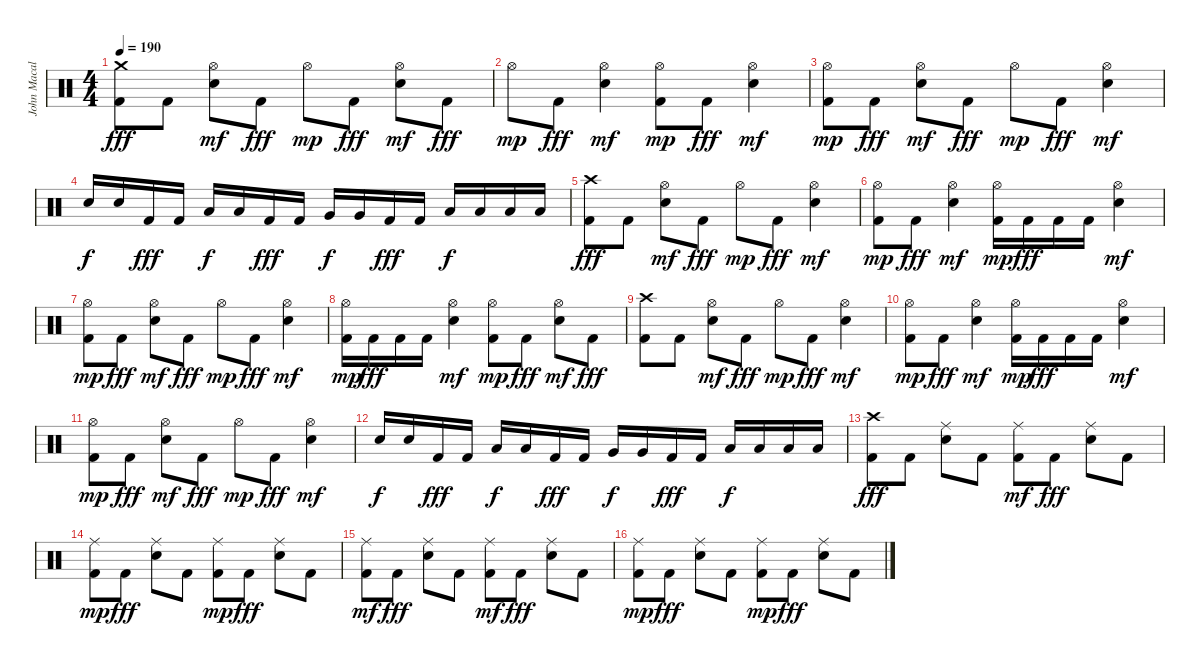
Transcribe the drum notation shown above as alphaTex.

\track ("John Macaluso drums" "John Macal") {instrument percussion}
\staff {score}
\articulation defaults
\ts (4 4)
\tempo 190
\clef neutral
\ks c
("Kick (hit) 2" "Crash medium (hit)").8{dy fff} "Kick (hit) 2".8 ("Snare (hit) 2" "Hi-Hat (open)").8{dy mf} "Kick (hit) 2".8{dy fff} "Hi-Hat (open)".8{dy mp} "Kick (hit) 2".8{dy fff} ("Snare (hit) 2" "Hi-Hat (open)").8{dy mf} "Kick (hit) 2".8{dy fff} |
"Hi-Hat (open)".8{dy mp} "Kick (hit) 2".8{dy fff} ("Snare (hit) 2" "Hi-Hat (open)").4{dy mf} ("Kick (hit) 2" "Hi-Hat (open)").8{dy mp} "Kick (hit) 2".8{dy fff} ("Snare (hit) 2" "Hi-Hat (open)").4{dy mf} |
("Kick (hit) 2" "Hi-Hat (open)").8{dy mp} "Kick (hit) 2".8{dy fff} ("Snare (hit) 2" "Hi-Hat (open)").8{dy mf} "Kick (hit) 2".8{dy fff} "Hi-Hat (open)".8{dy mp} "Kick (hit) 2".8{dy fff} ("Snare (hit) 2" "Hi-Hat (open)").4{dy mf} |
"Electric Snare (hit)".16{dy f} "Electric Snare (hit)".16 "Kick (hit) 2".16{dy fff} "Kick (hit) 2".16 "Low Tom (hit)".16{dy f} "Low Tom (hit)".16 "Kick (hit) 2".16{dy fff} "Kick (hit) 2".16 "Very Low Tom (hit)".16{dy f} "Very Low Tom (hit)".16 "Kick (hit) 2".16{dy fff} "Kick (hit) 2".16 "Low Floor Tom (hit)".16{dy f} "Low Floor Tom (hit)".16 "Low Floor Tom (hit)".16 "Low Floor Tom (hit)".16 |
("Kick (hit) 2" "Crash high (hit)").8{dy fff} "Kick (hit) 2".8 ("Snare (hit) 2" "Hi-Hat (open)").8{dy mf} "Kick (hit) 2".8{dy fff} "Hi-Hat (open)".8{dy mp} "Kick (hit) 2".8{dy fff} ("Snare (hit) 2" "Hi-Hat (open)").4{dy mf} |
("Kick (hit) 2" "Hi-Hat (open)").8{dy mp} "Kick (hit) 2".8{dy fff} ("Snare (hit) 2" "Hi-Hat (open)").4{dy mf} ("Kick (hit) 2" "Hi-Hat (open)").16{dy mp} "Kick (hit) 2".16{dy fff} "Kick (hit) 2".16 "Kick (hit) 2".16 ("Snare (hit) 2" "Hi-Hat (open)").4{dy mf} |
("Kick (hit) 2" "Hi-Hat (open)").8{dy mp} "Kick (hit) 2".8{dy fff} ("Snare (hit) 2" "Hi-Hat (open)").8{dy mf} "Kick (hit) 2".8{dy fff} "Hi-Hat (open)".8{dy mp} "Kick (hit) 2".8{dy fff} ("Snare (hit) 2" "Hi-Hat (open)").4{dy mf} |
("Kick (hit) 2" "Hi-Hat (open)").16{dy mp} "Kick (hit) 2".16{dy fff} "Kick (hit) 2".16 "Kick (hit) 2".16 ("Snare (hit) 2" "Hi-Hat (open)").4{dy mf} ("Kick (hit) 2" "Hi-Hat (open)").8{dy mp} "Kick (hit) 2".8{dy fff} ("Snare (hit) 2" "Hi-Hat (open)").8{dy mf} "Kick (hit) 2".8{dy fff} |
("Kick (hit) 2" "Crash high (hit)").8 "Kick (hit) 2".8 ("Snare (hit) 2" "Hi-Hat (open)").8{dy mf} "Kick (hit) 2".8{dy fff} "Hi-Hat (open)".8{dy mp} "Kick (hit) 2".8{dy fff} ("Snare (hit) 2" "Hi-Hat (open)").4{dy mf} |
("Kick (hit) 2" "Hi-Hat (open)").8{dy mp} "Kick (hit) 2".8{dy fff} ("Snare (hit) 2" "Hi-Hat (open)").4{dy mf} ("Kick (hit) 2" "Hi-Hat (open)").16{dy mp} "Kick (hit) 2".16{dy fff} "Kick (hit) 2".16 "Kick (hit) 2".16 ("Snare (hit) 2" "Hi-Hat (open)").4{dy mf} |
("Kick (hit) 2" "Hi-Hat (open)").8{dy mp} "Kick (hit) 2".8{dy fff} ("Snare (hit) 2" "Hi-Hat (open)").8{dy mf} "Kick (hit) 2".8{dy fff} "Hi-Hat (open)".8{dy mp} "Kick (hit) 2".8{dy fff} ("Snare (hit) 2" "Hi-Hat (open)").4{dy mf} |
"Electric Snare (hit)".16{dy f} "Electric Snare (hit)".16 "Kick (hit) 2".16{dy fff} "Kick (hit) 2".16 "Low Tom (hit)".16{dy f} "Low Tom (hit)".16 "Kick (hit) 2".16{dy fff} "Kick (hit) 2".16 "Very Low Tom (hit)".16{dy f} "Very Low Tom (hit)".16 "Kick (hit) 2".16{dy fff} "Kick (hit) 2".16 "Low Floor Tom (hit)".16{dy f} "Low Floor Tom (hit)".16 "Low Floor Tom (hit)".16 "Low Floor Tom (hit)".16 |
("Kick (hit) 2" "Crash high (hit)").8{dy fff} "Kick (hit) 2".8 ("Snare (hit) 2" "Ride (middle)").8 "Kick (hit) 2".8 ("Kick (hit) 2" "Ride (middle)").8{dy mf} "Kick (hit) 2".8{dy fff} ("Snare (hit) 2" "Ride (middle)").8 "Kick (hit) 2".8 |
("Kick (hit) 2" "Ride (middle)").8{dy mp} "Kick (hit) 2".8{dy fff} ("Snare (hit) 2" "Ride (middle)").8 "Kick (hit) 2".8 ("Kick (hit) 2" "Ride (middle)").8{dy mp} "Kick (hit) 2".8{dy fff} ("Snare (hit) 2" "Ride (middle)").8 "Kick (hit) 2".8 |
("Kick (hit) 2" "Ride (middle)").8{dy mf} "Kick (hit) 2".8{dy fff} ("Snare (hit) 2" "Ride (middle)").8 "Kick (hit) 2".8 ("Kick (hit) 2" "Ride (middle)").8{dy mf} "Kick (hit) 2".8{dy fff} ("Snare (hit) 2" "Ride (middle)").8 "Kick (hit) 2".8 |
("Kick (hit) 2" "Ride (middle)").8{dy mp} "Kick (hit) 2".8{dy fff} ("Snare (hit) 2" "Ride (middle)").8 "Kick (hit) 2".8 ("Kick (hit) 2" "Ride (middle)").8{dy mp} "Kick (hit) 2".8{dy fff} ("Snare (hit) 2" "Ride (middle)").8 "Kick (hit) 2".8
